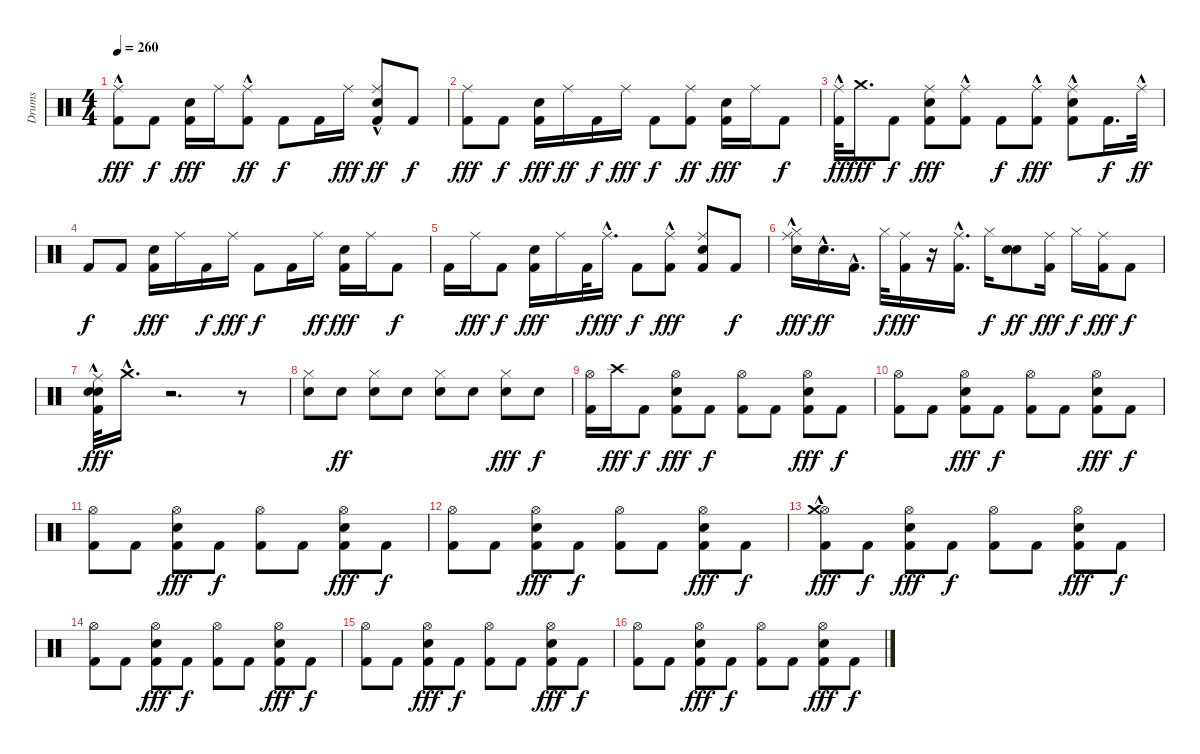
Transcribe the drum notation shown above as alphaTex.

\track ("Drums" "Drums") {instrument percussion}
\staff {score}
\articulation defaults
\ts (4 4)
\tempo 260
\clef neutral
\ks c
("Kick (hit) 2" "Ride (middle)"{hac}).8{dy fff} "Kick (hit) 2".8{dy f} ("Snare (hit) 2" "Kick (hit) 2").16{dy fff} "Ride (middle)".16 ("Kick (hit) 2" "Ride (middle)"{hac}).8{dy ff} "Kick (hit) 2".8{dy f} "Kick (hit) 2".16 "Ride (middle)".16{dy fff} ("Snare (hit) 2" "Kick (hit) 2" "Ride (middle)"{hac}).8{dy ff} "Kick (hit) 2".8{dy f} |
("Kick (hit) 2" "Ride (middle)").8{dy fff} "Kick (hit) 2".8{dy f} ("Snare (hit) 2" "Kick (hit) 2").16{dy fff} "Ride (middle)".16{dy ff} "Kick (hit) 2".16{dy f} "Ride (middle)".16{dy fff} "Kick (hit) 2".8{dy f} ("Kick (hit) 2" "Ride (middle)").8{dy ff} ("Snare (hit) 2" "Kick (hit) 2").16{dy fff} "Ride (middle)".16 "Kick (hit) 2".8{dy f} |
("Ride (middle)"{hac} "Kick (hit) 2").32{dy ff} "Crash medium (hit)".16{d dy fff} "Kick (hit) 2".8{dy f} ("Snare (hit) 2" "Kick (hit) 2" "Ride (middle)").8{dy fff} ("Kick (hit) 2" "Ride (middle)"{hac}).8 "Kick (hit) 2".8{dy f} ("Ride (middle)"{hac} "Kick (hit) 2").8{dy fff} ("Ride (middle)"{hac} "Snare (hit) 2" "Kick (hit) 2").8 "Kick (hit) 2".16{d dy f} "Ride (middle)"{hac}.32{dy ff} |
"Kick (hit) 2".8{dy f} "Kick (hit) 2".8 ("Snare (hit) 2" "Kick (hit) 2").16{dy fff} "Ride (middle)".16 "Kick (hit) 2".16{dy f} "Ride (middle)".16{dy fff} "Kick (hit) 2".8{dy f} "Kick (hit) 2".16 "Ride (middle)".16{dy ff} ("Snare (hit) 2" "Kick (hit) 2").16{dy fff} "Ride (middle)".16 "Kick (hit) 2".8{dy f} |
"Kick (hit) 2".16 "Ride (middle)".16{dy fff} "Kick (hit) 2".8{dy f} ("Snare (hit) 2" "Kick (hit) 2").16{dy fff} "Ride (middle)".16 "Kick (hit) 2".32{dy f} "Ride (middle)"{hac}.16{d dy fff} "Kick (hit) 2".8{dy f} ("Kick (hit) 2" "Ride (middle)"{hac}).8{dy fff} ("Snare (hit) 2" "Kick (hit) 2" "Ride (middle)").8 "Kick (hit) 2".8{dy f} |
("Electric Snare (hit)"{hac} "Hi-Hat (closed)" "Ride (middle)").16{dy fff} "Snare (hit) 2"{hac}.16{d dy ff} "Kick (hit) 2"{hac}.16{d} "Hi-Hat (closed)".32{dy f} ("Ride (middle)" "Kick (hit) 2").16{dy fff} r.16 ("Ride (middle)"{hac} "Kick (hit) 2"{hac}).16{d} "Hi-Hat (closed)".16{dy f} ("Electric Snare (hit)" "Snare (hit) 2").8{dy ff} ("Kick (hit) 2" "Ride (middle)").16{dy fff} "Hi-Hat (closed)".16{dy f} ("Kick (hit) 2" "Ride (middle)").16{dy fff} "Kick (hit) 2".8{dy f} |
("Kick (hit) 2" "Electric Snare (hit)" "Snare (hit) 2"{hac} "Ride (middle)").32{dy fff} "Crash medium (hit)"{hac}.16{d} r.2{d} r.8 |
("Hi-Hat (closed)" "Snare (hit) 2").8 "Snare (hit) 2".8{dy ff} ("Hi-Hat (closed)" "Snare (hit) 2").8 "Snare (hit) 2".8 ("Hi-Hat (closed)" "Snare (hit) 2").8 "Snare (hit) 2".8 ("Hi-Hat (closed)" "Snare (hit) 2").8{dy fff} "Snare (hit) 2".8{dy f} |
("Hi-Hat (open)" "Kick (hit) 2").16 "Crash high (hit)".16{dy fff} "Kick (hit) 2".8{dy f} ("Hi-Hat (open)" "Snare (hit) 2" "Kick (hit) 2").8{dy fff} "Kick (hit) 2".8{dy f} ("Hi-Hat (open)" "Kick (hit) 2").8 "Kick (hit) 2".8 ("Hi-Hat (open)" "Snare (hit) 2" "Kick (hit) 2").8{dy fff} "Kick (hit) 2".8{dy f} |
("Hi-Hat (open)" "Kick (hit) 2").8 "Kick (hit) 2".8 ("Hi-Hat (open)" "Snare (hit) 2" "Kick (hit) 2").8{dy fff} "Kick (hit) 2".8{dy f} ("Hi-Hat (open)" "Kick (hit) 2").8 "Kick (hit) 2".8 ("Hi-Hat (open)" "Snare (hit) 2" "Kick (hit) 2").8{dy fff} "Kick (hit) 2".8{dy f} |
("Hi-Hat (open)" "Kick (hit) 2").8 "Kick (hit) 2".8 ("Hi-Hat (open)" "Snare (hit) 2" "Kick (hit) 2").8{dy fff} "Kick (hit) 2".8{dy f} ("Hi-Hat (open)" "Kick (hit) 2").8 "Kick (hit) 2".8 ("Hi-Hat (open)" "Snare (hit) 2" "Kick (hit) 2").8{dy fff} "Kick (hit) 2".8{dy f} |
("Hi-Hat (open)" "Kick (hit) 2").8 "Kick (hit) 2".8 ("Hi-Hat (open)" "Snare (hit) 2" "Kick (hit) 2").8{dy fff} "Kick (hit) 2".8{dy f} ("Hi-Hat (open)" "Kick (hit) 2").8 "Kick (hit) 2".8 ("Hi-Hat (open)" "Snare (hit) 2" "Kick (hit) 2").8{dy fff} "Kick (hit) 2".8{dy f} |
("Hi-Hat (open)" "Kick (hit) 2" "Crash medium (hit)"{hac}).8{dy fff} "Kick (hit) 2".8{dy f} ("Hi-Hat (open)" "Snare (hit) 2" "Kick (hit) 2").8{dy fff} "Kick (hit) 2".8{dy f} ("Hi-Hat (open)" "Kick (hit) 2").8 "Kick (hit) 2".8 ("Hi-Hat (open)" "Snare (hit) 2" "Kick (hit) 2").8{dy fff} "Kick (hit) 2".8{dy f} |
("Hi-Hat (open)" "Kick (hit) 2").8 "Kick (hit) 2".8 ("Hi-Hat (open)" "Snare (hit) 2" "Kick (hit) 2").8{dy fff} "Kick (hit) 2".8{dy f} ("Hi-Hat (open)" "Kick (hit) 2").8 "Kick (hit) 2".8 ("Hi-Hat (open)" "Snare (hit) 2" "Kick (hit) 2").8{dy fff} "Kick (hit) 2".8{dy f} |
("Hi-Hat (open)" "Kick (hit) 2").8 "Kick (hit) 2".8 ("Hi-Hat (open)" "Snare (hit) 2" "Kick (hit) 2").8{dy fff} "Kick (hit) 2".8{dy f} ("Hi-Hat (open)" "Kick (hit) 2").8 "Kick (hit) 2".8 ("Hi-Hat (open)" "Snare (hit) 2" "Kick (hit) 2").8{dy fff} "Kick (hit) 2".8{dy f} |
("Hi-Hat (open)" "Kick (hit) 2").8 "Kick (hit) 2".8 ("Hi-Hat (open)" "Snare (hit) 2" "Kick (hit) 2").8{dy fff} "Kick (hit) 2".8{dy f} ("Hi-Hat (open)" "Kick (hit) 2").8 "Kick (hit) 2".8 ("Hi-Hat (open)" "Snare (hit) 2" "Kick (hit) 2").8{dy fff} "Kick (hit) 2".8{dy f}
